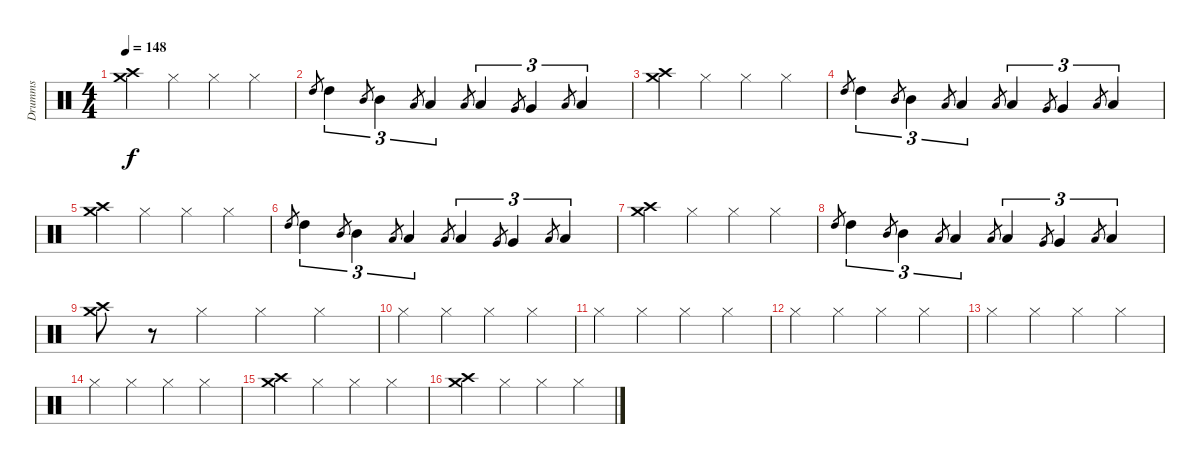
\track ("Drumms" "Drumms") {instrument percussion}
\staff {score}
\articulation defaults
\ts (4 4)
\tempo 148
\clef neutral
\ks c
("Crash medium (hit)" "Crash high (hit)").4{dy f} "Hi-Hat (closed)".4 "Hi-Hat (closed)".4 "Hi-Hat (closed)".4 |
"High Tom (hit)".8{gr} "High Tom (hit)".4{tu (3 2)} "Mid Tom (hit)".8{gr} "Mid Tom (hit)".4{tu (3 2)} "Low Tom (hit)".8{gr} "Low Tom (hit)".4{tu (3 2)} "Low Tom (hit)".8{gr} "Low Tom (hit)".4{tu (3 2)} "Very Low Tom (hit)".8{gr} "Very Low Tom (hit)".4{tu (3 2)} "Low Floor Tom (hit)".8{gr} "Low Floor Tom (hit)".4{tu (3 2)} |
("Crash medium (hit)" "Crash high (hit)").4 "Hi-Hat (closed)".4 "Hi-Hat (closed)".4 "Hi-Hat (closed)".4 |
"High Tom (hit)".8{gr} "High Tom (hit)".4{tu (3 2)} "Mid Tom (hit)".8{gr} "Mid Tom (hit)".4{tu (3 2)} "Low Tom (hit)".8{gr} "Low Tom (hit)".4{tu (3 2)} "Low Tom (hit)".8{gr} "Low Tom (hit)".4{tu (3 2)} "Very Low Tom (hit)".8{gr} "Very Low Tom (hit)".4{tu (3 2)} "Low Floor Tom (hit)".8{gr} "Low Floor Tom (hit)".4{tu (3 2)} |
("Crash medium (hit)" "Crash high (hit)").4 "Hi-Hat (closed)".4 "Hi-Hat (closed)".4 "Hi-Hat (closed)".4 |
"High Tom (hit)".8{gr} "High Tom (hit)".4{tu (3 2)} "Mid Tom (hit)".8{gr} "Mid Tom (hit)".4{tu (3 2)} "Low Tom (hit)".8{gr} "Low Tom (hit)".4{tu (3 2)} "Low Tom (hit)".8{gr} "Low Tom (hit)".4{tu (3 2)} "Very Low Tom (hit)".8{gr} "Very Low Tom (hit)".4{tu (3 2)} "Low Floor Tom (hit)".8{gr} "Low Floor Tom (hit)".4{tu (3 2)} |
("Crash medium (hit)" "Crash high (hit)").4 "Hi-Hat (closed)".4 "Hi-Hat (closed)".4 "Hi-Hat (closed)".4 |
"High Tom (hit)".8{gr} "High Tom (hit)".4{tu (3 2)} "Mid Tom (hit)".8{gr} "Mid Tom (hit)".4{tu (3 2)} "Low Tom (hit)".8{gr} "Low Tom (hit)".4{tu (3 2)} "Low Tom (hit)".8{gr} "Low Tom (hit)".4{tu (3 2)} "Very Low Tom (hit)".8{gr} "Very Low Tom (hit)".4{tu (3 2)} "Low Floor Tom (hit)".8{gr} "Low Floor Tom (hit)".4{tu (3 2)} |
("Crash medium (hit)" "Crash high (hit)").8 r.8 "Hi-Hat (closed)".4 "Hi-Hat (closed)".4 "Hi-Hat (closed)".4 |
"Hi-Hat (closed)".4 "Hi-Hat (closed)".4 "Hi-Hat (closed)".4 "Hi-Hat (closed)".4 |
"Hi-Hat (closed)".4 "Hi-Hat (closed)".4 "Hi-Hat (closed)".4 "Hi-Hat (closed)".4 |
"Hi-Hat (closed)".4 "Hi-Hat (closed)".4 "Hi-Hat (closed)".4 "Hi-Hat (closed)".4 |
"Hi-Hat (closed)".4 "Hi-Hat (closed)".4 "Hi-Hat (closed)".4 "Hi-Hat (closed)".4 |
"Hi-Hat (closed)".4 "Hi-Hat (closed)".4 "Hi-Hat (closed)".4 "Hi-Hat (closed)".4 |
("Crash high (hit)" "Crash medium (hit)").4 "Hi-Hat (closed)".4 "Hi-Hat (closed)".4 "Hi-Hat (closed)".4 |
("Crash high (hit)" "Crash medium (hit)").4 "Hi-Hat (closed)".4 "Hi-Hat (closed)".4 "Hi-Hat (closed)".4
